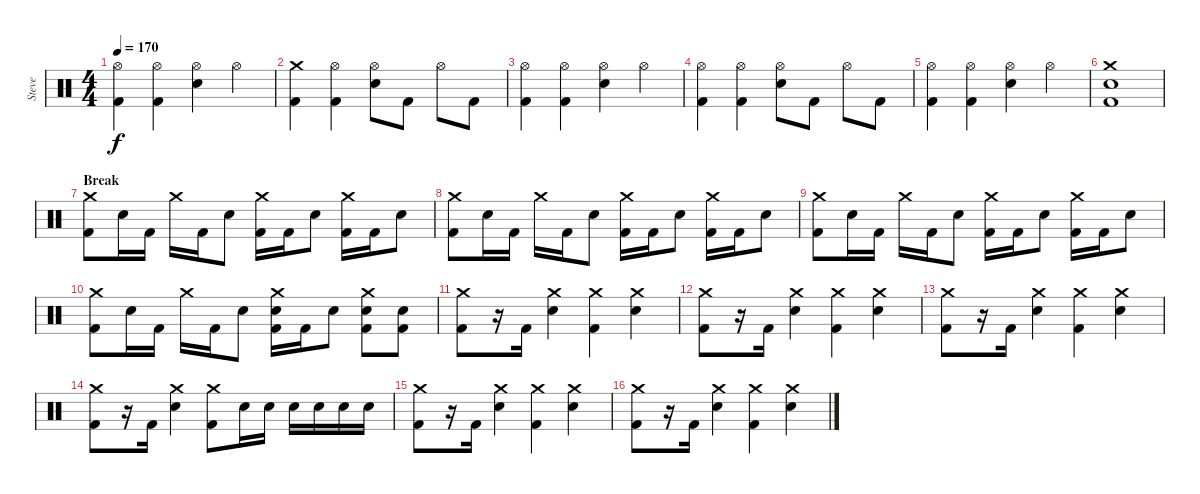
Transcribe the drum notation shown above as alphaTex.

\track ("Steve" "Steve") {instrument percussion}
\staff {score}
\articulation defaults
\ts (4 4)
\tempo 170
\clef neutral
\ks c
("Hi-Hat (open)" "Kick (hit) 2").4{dy f} ("Hi-Hat (open)" "Kick (hit) 2").4 ("Electric Snare (hit)" "Hi-Hat (open)").4 "Hi-Hat (open)".4 |
("Crash medium (hit)" "Kick (hit) 2").4 ("Hi-Hat (open)" "Kick (hit) 2").4 ("Electric Snare (hit)" "Hi-Hat (open)").8 "Kick (hit) 2".8 "Hi-Hat (open)".8 "Kick (hit) 2".8 |
("Hi-Hat (open)" "Kick (hit) 2").4 ("Hi-Hat (open)" "Kick (hit) 2").4 ("Electric Snare (hit)" "Hi-Hat (open)").4 "Hi-Hat (open)".4 |
("Hi-Hat (open)" "Kick (hit) 2").4 ("Hi-Hat (open)" "Kick (hit) 2").4 ("Electric Snare (hit)" "Hi-Hat (open)").8 "Kick (hit) 2".8 "Hi-Hat (open)".8 "Kick (hit) 2".8 |
("Hi-Hat (open)" "Kick (hit) 2").4 ("Hi-Hat (open)" "Kick (hit) 2").4 ("Electric Snare (hit)" "Hi-Hat (open)").4 "Hi-Hat (open)".4 |
("Crash medium (hit)" "Electric Snare (hit)" "Kick (hit) 2").1 |
\section ("" "Break")
("Crash medium (hit)" "Kick (hit) 2").8 "Electric Snare (hit)".16 "Kick (hit) 2".16 "Crash medium (hit)".16 "Kick (hit) 2".16 "Electric Snare (hit)".8 ("Crash medium (hit)" "Kick (hit) 2").16 "Kick (hit) 2".16 "Electric Snare (hit)".8 ("Crash medium (hit)" "Kick (hit) 2").16 "Kick (hit) 2".16 "Electric Snare (hit)".8 |
("Crash medium (hit)" "Kick (hit) 2").8 "Electric Snare (hit)".16 "Kick (hit) 2".16 "Crash medium (hit)".16 "Kick (hit) 2".16 "Electric Snare (hit)".8 ("Crash medium (hit)" "Kick (hit) 2").16 "Kick (hit) 2".16 "Electric Snare (hit)".8 ("Crash medium (hit)" "Kick (hit) 2").16 "Kick (hit) 2".16 "Electric Snare (hit)".8 |
("Crash medium (hit)" "Kick (hit) 2").8 "Electric Snare (hit)".16 "Kick (hit) 2".16 "Crash medium (hit)".16 "Kick (hit) 2".16 "Electric Snare (hit)".8 ("Crash medium (hit)" "Kick (hit) 2").16 "Kick (hit) 2".16 "Electric Snare (hit)".8 ("Crash medium (hit)" "Kick (hit) 2").16 "Kick (hit) 2".16 "Electric Snare (hit)".8 |
("Crash medium (hit)" "Kick (hit) 2").8 "Electric Snare (hit)".16 "Kick (hit) 2".16 "Crash medium (hit)".16 "Kick (hit) 2".16 "Electric Snare (hit)".8 ("Crash medium (hit)" "Electric Snare (hit)" "Kick (hit) 2").16 "Kick (hit) 2".16 "Electric Snare (hit)".8 ("Crash medium (hit)" "Electric Snare (hit)" "Kick (hit) 2").8 ("Electric Snare (hit)" "Kick (hit) 2").8 |
("Crash medium (hit)" "Kick (hit) 2").8 r.16 "Kick (hit) 2".16 ("Crash medium (hit)" "Electric Snare (hit)").4 ("Crash medium (hit)" "Kick (hit) 2").4 ("Crash medium (hit)" "Electric Snare (hit)").4 |
("Crash medium (hit)" "Kick (hit) 2").8 r.16 "Kick (hit) 2".16 ("Crash medium (hit)" "Electric Snare (hit)").4 ("Crash medium (hit)" "Kick (hit) 2").4 ("Crash medium (hit)" "Electric Snare (hit)").4 |
("Crash medium (hit)" "Kick (hit) 2").8 r.16 "Kick (hit) 2".16 ("Crash medium (hit)" "Electric Snare (hit)").4 ("Crash medium (hit)" "Kick (hit) 2").4 ("Crash medium (hit)" "Electric Snare (hit)").4 |
("Crash medium (hit)" "Kick (hit) 2").8 r.16 "Kick (hit) 2".16 ("Crash medium (hit)" "Electric Snare (hit)").4 ("Crash medium (hit)" "Kick (hit) 2").8 "Electric Snare (hit)".16 "Electric Snare (hit)".16 "Electric Snare (hit)".16 "Electric Snare (hit)".16 "Electric Snare (hit)".16 "Electric Snare (hit)".16 |
("Crash medium (hit)" "Kick (hit) 2").8 r.16 "Kick (hit) 2".16 ("Crash medium (hit)" "Electric Snare (hit)").4 ("Crash medium (hit)" "Kick (hit) 2").4 ("Crash medium (hit)" "Electric Snare (hit)").4 |
("Crash medium (hit)" "Kick (hit) 2").8 r.16 "Kick (hit) 2".16 ("Crash medium (hit)" "Electric Snare (hit)").4 ("Crash medium (hit)" "Kick (hit) 2").4 ("Crash medium (hit)" "Electric Snare (hit)").4
